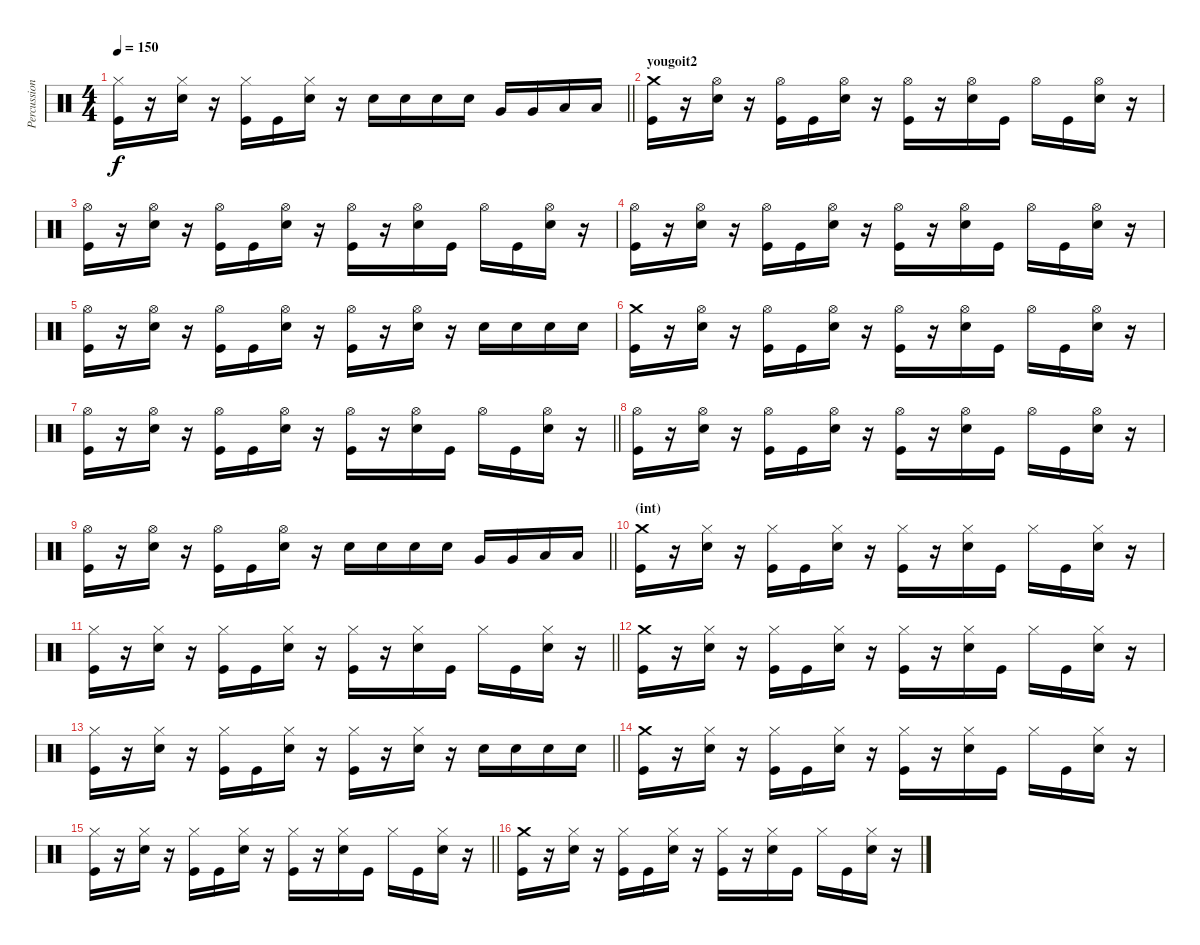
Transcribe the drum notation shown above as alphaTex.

\track ("Percussion" "Percussion") {instrument percussion}
\staff {score}
\articulation defaults
\ts (4 4)
\tempo 150
\clef neutral
\barLineRight lightlight
\ks c
("Hi-Hat (closed)" "Kick (hit)").16{dy f} r.16 ("Hi-Hat (closed)" "Snare (hit) 2").16 r.16 ("Hi-Hat (closed)" "Kick (hit)").16 "Kick (hit)".16 ("Hi-Hat (closed)" "Snare (hit) 2").16 r.16 "Snare (hit) 2".16 "Snare (hit) 2".16 "Snare (hit) 2".16 "Snare (hit) 2".16 "Very Low Tom (hit)".16 "Very Low Tom (hit)".16 "Low Floor Tom (hit)".16 "Low Floor Tom (hit)".16 |
\section ("" "yougoit2")
("Crash medium (hit)" "Kick (hit)").16 r.16 ("Hi-Hat (open)" "Snare (hit) 2").16 r.16 ("Hi-Hat (open)" "Kick (hit)").16 "Kick (hit)".16 ("Hi-Hat (open)" "Snare (hit) 2").16 r.16 ("Hi-Hat (open)" "Kick (hit)").16 r.16 ("Hi-Hat (open)" "Snare (hit) 2").16 "Kick (hit)".16 "Hi-Hat (open)".16 "Kick (hit)".16 ("Hi-Hat (open)" "Snare (hit) 2").16 r.16 |
("Hi-Hat (open)" "Kick (hit)").16 r.16 ("Hi-Hat (open)" "Snare (hit) 2").16 r.16 ("Hi-Hat (open)" "Kick (hit)").16 "Kick (hit)".16 ("Hi-Hat (open)" "Snare (hit) 2").16 r.16 ("Hi-Hat (open)" "Kick (hit)").16 r.16 ("Hi-Hat (open)" "Snare (hit) 2").16 "Kick (hit)".16 "Hi-Hat (open)".16 "Kick (hit)".16 ("Hi-Hat (open)" "Snare (hit) 2").16 r.16 |
("Hi-Hat (open)" "Kick (hit)").16 r.16 ("Hi-Hat (open)" "Snare (hit) 2").16 r.16 ("Hi-Hat (open)" "Kick (hit)").16 "Kick (hit)".16 ("Hi-Hat (open)" "Snare (hit) 2").16 r.16 ("Hi-Hat (open)" "Kick (hit)").16 r.16 ("Hi-Hat (open)" "Snare (hit) 2").16 "Kick (hit)".16 "Hi-Hat (open)".16 "Kick (hit)".16 ("Hi-Hat (open)" "Snare (hit) 2").16 r.16 |
("Hi-Hat (open)" "Kick (hit)").16 r.16 ("Hi-Hat (open)" "Snare (hit) 2").16 r.16 ("Hi-Hat (open)" "Kick (hit)").16 "Kick (hit)".16 ("Hi-Hat (open)" "Snare (hit) 2").16 r.16 ("Hi-Hat (open)" "Kick (hit)").16 r.16 ("Hi-Hat (open)" "Snare (hit) 2").16 r.16 "Snare (hit) 2".16 "Snare (hit) 2".16 "Snare (hit) 2".16 "Snare (hit) 2".16 |
("Crash medium (hit)" "Kick (hit)").16 r.16 ("Hi-Hat (open)" "Snare (hit) 2").16 r.16 ("Hi-Hat (open)" "Kick (hit)").16 "Kick (hit)".16 ("Hi-Hat (open)" "Snare (hit) 2").16 r.16 ("Hi-Hat (open)" "Kick (hit)").16 r.16 ("Hi-Hat (open)" "Snare (hit) 2").16 "Kick (hit)".16 "Hi-Hat (open)".16 "Kick (hit)".16 ("Hi-Hat (open)" "Snare (hit) 2").16 r.16 |
\barLineRight lightlight
("Hi-Hat (open)" "Kick (hit)").16 r.16 ("Hi-Hat (open)" "Snare (hit) 2").16 r.16 ("Hi-Hat (open)" "Kick (hit)").16 "Kick (hit)".16 ("Hi-Hat (open)" "Snare (hit) 2").16 r.16 ("Hi-Hat (open)" "Kick (hit)").16 r.16 ("Hi-Hat (open)" "Snare (hit) 2").16 "Kick (hit)".16 "Hi-Hat (open)".16 "Kick (hit)".16 ("Hi-Hat (open)" "Snare (hit) 2").16 r.16 |
("Hi-Hat (open)" "Kick (hit)").16 r.16 ("Hi-Hat (open)" "Snare (hit) 2").16 r.16 ("Hi-Hat (open)" "Kick (hit)").16 "Kick (hit)".16 ("Hi-Hat (open)" "Snare (hit) 2").16 r.16 ("Hi-Hat (open)" "Kick (hit)").16 r.16 ("Hi-Hat (open)" "Snare (hit) 2").16 "Kick (hit)".16 "Hi-Hat (open)".16 "Kick (hit)".16 ("Hi-Hat (open)" "Snare (hit) 2").16 r.16 |
\barLineRight lightlight
("Hi-Hat (open)" "Kick (hit)").16 r.16 ("Hi-Hat (open)" "Snare (hit) 2").16 r.16 ("Hi-Hat (open)" "Kick (hit)").16 "Kick (hit)".16 ("Hi-Hat (open)" "Snare (hit) 2").16 r.16 "Snare (hit) 2".16 "Snare (hit) 2".16 "Snare (hit) 2".16 "Snare (hit) 2".16 "Very Low Tom (hit)".16 "Very Low Tom (hit)".16 "Low Floor Tom (hit)".16 "Low Floor Tom (hit)".16 |
\section ("" "(int)")
("Crash medium (hit)" "Kick (hit)").16 r.16 ("Hi-Hat (closed)" "Snare (hit) 2").16 r.16 ("Hi-Hat (closed)" "Kick (hit)").16 "Kick (hit)".16 ("Hi-Hat (closed)" "Snare (hit) 2").16 r.16 ("Hi-Hat (closed)" "Kick (hit)").16 r.16 ("Hi-Hat (closed)" "Snare (hit) 2").16 "Kick (hit)".16 "Hi-Hat (closed)".16 "Kick (hit)".16 ("Hi-Hat (closed)" "Snare (hit) 2").16 r.16 |
\barLineRight lightlight
("Hi-Hat (closed)" "Kick (hit)").16 r.16 ("Hi-Hat (closed)" "Snare (hit) 2").16 r.16 ("Hi-Hat (closed)" "Kick (hit)").16 "Kick (hit)".16 ("Hi-Hat (closed)" "Snare (hit) 2").16 r.16 ("Hi-Hat (closed)" "Kick (hit)").16 r.16 ("Hi-Hat (closed)" "Snare (hit) 2").16 "Kick (hit)".16 "Hi-Hat (closed)".16 "Kick (hit)".16 ("Hi-Hat (closed)" "Snare (hit) 2").16 r.16 |
("Crash medium (hit)" "Kick (hit)").16 r.16 ("Hi-Hat (closed)" "Snare (hit) 2").16 r.16 ("Hi-Hat (closed)" "Kick (hit)").16 "Kick (hit)".16 ("Hi-Hat (closed)" "Snare (hit) 2").16 r.16 ("Hi-Hat (closed)" "Kick (hit)").16 r.16 ("Hi-Hat (closed)" "Snare (hit) 2").16 "Kick (hit)".16 "Hi-Hat (closed)".16 "Kick (hit)".16 ("Hi-Hat (closed)" "Snare (hit) 2").16 r.16 |
\barLineRight lightlight
("Hi-Hat (closed)" "Kick (hit)").16 r.16 ("Hi-Hat (closed)" "Snare (hit) 2").16 r.16 ("Hi-Hat (closed)" "Kick (hit)").16 "Kick (hit)".16 ("Hi-Hat (closed)" "Snare (hit) 2").16 r.16 ("Hi-Hat (closed)" "Kick (hit)").16 r.16 ("Hi-Hat (closed)" "Snare (hit) 2").16 r.16 "Snare (hit) 2".16 "Snare (hit) 2".16 "Snare (hit) 2".16 "Snare (hit) 2".16 |
("Crash medium (hit)" "Kick (hit)").16 r.16 ("Hi-Hat (closed)" "Snare (hit) 2").16 r.16 ("Hi-Hat (closed)" "Kick (hit)").16 "Kick (hit)".16 ("Hi-Hat (closed)" "Snare (hit) 2").16 r.16 ("Hi-Hat (closed)" "Kick (hit)").16 r.16 ("Hi-Hat (closed)" "Snare (hit) 2").16 "Kick (hit)".16 "Hi-Hat (closed)".16 "Kick (hit)".16 ("Hi-Hat (closed)" "Snare (hit) 2").16 r.16 |
\barLineRight lightlight
("Hi-Hat (closed)" "Kick (hit)").16 r.16 ("Hi-Hat (closed)" "Snare (hit) 2").16 r.16 ("Hi-Hat (closed)" "Kick (hit)").16 "Kick (hit)".16 ("Hi-Hat (closed)" "Snare (hit) 2").16 r.16 ("Hi-Hat (closed)" "Kick (hit)").16 r.16 ("Hi-Hat (closed)" "Snare (hit) 2").16 "Kick (hit)".16 "Hi-Hat (closed)".16 "Kick (hit)".16 ("Hi-Hat (closed)" "Snare (hit) 2").16 r.16 |
("Crash medium (hit)" "Kick (hit)").16 r.16 ("Hi-Hat (closed)" "Snare (hit) 2").16 r.16 ("Hi-Hat (closed)" "Kick (hit)").16 "Kick (hit)".16 ("Hi-Hat (closed)" "Snare (hit) 2").16 r.16 ("Hi-Hat (closed)" "Kick (hit)").16 r.16 ("Hi-Hat (closed)" "Snare (hit) 2").16 "Kick (hit)".16 "Hi-Hat (closed)".16 "Kick (hit)".16 ("Hi-Hat (closed)" "Snare (hit) 2").16 r.16
